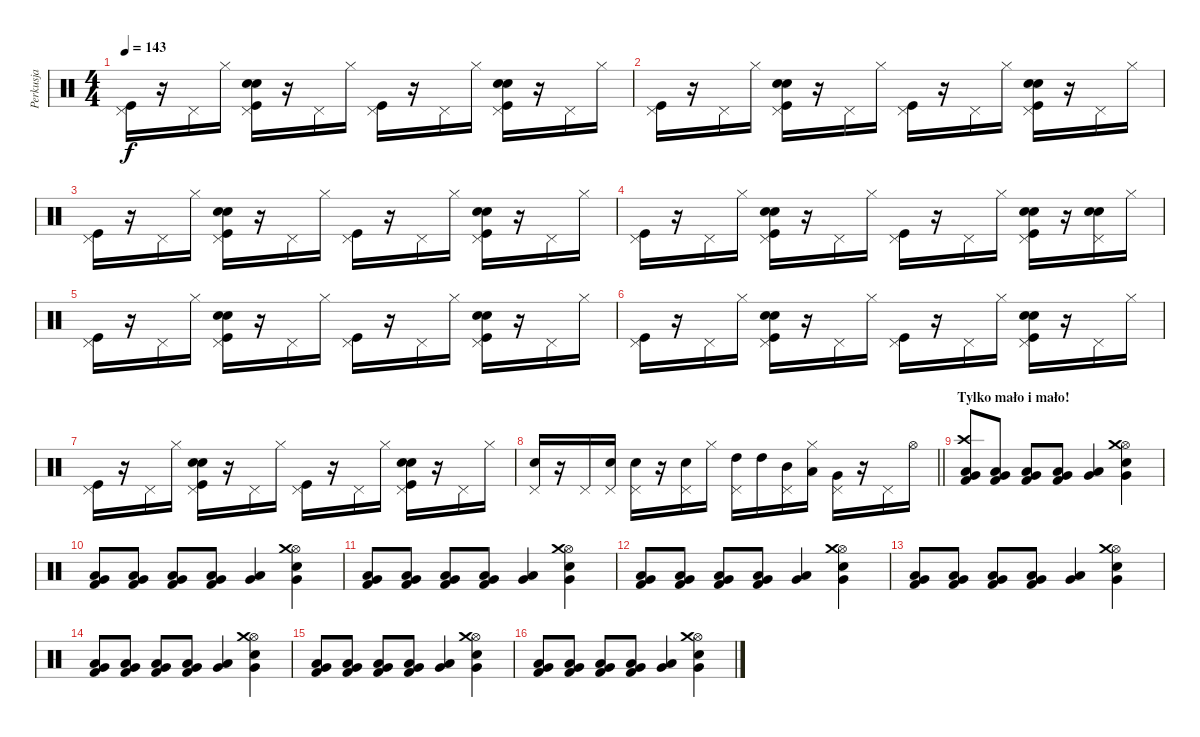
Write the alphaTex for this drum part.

\track ("Perkusja" "Perkusja") {instrument percussion}
\staff {score}
\articulation defaults
\ts (4 4)
\tempo 143
\clef neutral
\ks c
("Pedal Hi-Hat (hit)" "Kick (hit)").16{dy f} r.16 "Pedal Hi-Hat (hit)".16 "Hi-Hat (closed)".16 ("Pedal Hi-Hat (hit)" "Hand Clap (hit)" "Snare (hit) 2" "Kick (hit)").16 r.16 "Pedal Hi-Hat (hit)".16 "Hi-Hat (closed)".16 ("Pedal Hi-Hat (hit)" "Kick (hit)").16 r.16 "Pedal Hi-Hat (hit)".16 "Hi-Hat (closed)".16 ("Pedal Hi-Hat (hit)" "Hand Clap (hit)" "Snare (hit) 2" "Kick (hit)").16 r.16 "Pedal Hi-Hat (hit)".16 "Hi-Hat (closed)".16 |
("Pedal Hi-Hat (hit)" "Kick (hit)").16 r.16 "Pedal Hi-Hat (hit)".16 "Hi-Hat (closed)".16 ("Pedal Hi-Hat (hit)" "Hand Clap (hit)" "Snare (hit) 2" "Kick (hit)").16 r.16 "Pedal Hi-Hat (hit)".16 "Hi-Hat (closed)".16 ("Pedal Hi-Hat (hit)" "Kick (hit)").16 r.16 "Pedal Hi-Hat (hit)".16 "Hi-Hat (closed)".16 ("Pedal Hi-Hat (hit)" "Hand Clap (hit)" "Snare (hit) 2" "Kick (hit)").16 r.16 "Pedal Hi-Hat (hit)".16 "Hi-Hat (closed)".16 |
("Pedal Hi-Hat (hit)" "Kick (hit)").16 r.16 "Pedal Hi-Hat (hit)".16 "Hi-Hat (closed)".16 ("Pedal Hi-Hat (hit)" "Hand Clap (hit)" "Snare (hit) 2" "Kick (hit)").16 r.16 "Pedal Hi-Hat (hit)".16 "Hi-Hat (closed)".16 ("Pedal Hi-Hat (hit)" "Kick (hit)").16 r.16 "Pedal Hi-Hat (hit)".16 "Hi-Hat (closed)".16 ("Pedal Hi-Hat (hit)" "Hand Clap (hit)" "Snare (hit) 2" "Kick (hit)").16 r.16 "Pedal Hi-Hat (hit)".16 "Hi-Hat (closed)".16 |
("Pedal Hi-Hat (hit)" "Kick (hit)").16 r.16 "Pedal Hi-Hat (hit)".16 "Hi-Hat (closed)".16 ("Pedal Hi-Hat (hit)" "Hand Clap (hit)" "Snare (hit) 2" "Kick (hit)").16 r.16 "Pedal Hi-Hat (hit)".16 "Hi-Hat (closed)".16 ("Pedal Hi-Hat (hit)" "Kick (hit)").16 r.16 "Pedal Hi-Hat (hit)".16 "Hi-Hat (closed)".16 ("Pedal Hi-Hat (hit)" "Hand Clap (hit)" "Snare (hit) 2" "Kick (hit)").16 r.16 ("Pedal Hi-Hat (hit)" "Hand Clap (hit)" "Snare (hit) 2").16 "Hi-Hat (closed)".16 |
("Pedal Hi-Hat (hit)" "Kick (hit)").16 r.16 "Pedal Hi-Hat (hit)".16 "Hi-Hat (closed)".16 ("Pedal Hi-Hat (hit)" "Hand Clap (hit)" "Snare (hit) 2" "Kick (hit)").16 r.16 "Pedal Hi-Hat (hit)".16 "Hi-Hat (closed)".16 ("Pedal Hi-Hat (hit)" "Kick (hit)").16 r.16 "Pedal Hi-Hat (hit)".16 "Hi-Hat (closed)".16 ("Pedal Hi-Hat (hit)" "Hand Clap (hit)" "Snare (hit) 2" "Kick (hit)").16 r.16 "Pedal Hi-Hat (hit)".16 "Hi-Hat (closed)".16 |
("Pedal Hi-Hat (hit)" "Kick (hit)").16 r.16 "Pedal Hi-Hat (hit)".16 "Hi-Hat (closed)".16 ("Pedal Hi-Hat (hit)" "Hand Clap (hit)" "Snare (hit) 2" "Kick (hit)").16 r.16 "Pedal Hi-Hat (hit)".16 "Hi-Hat (closed)".16 ("Pedal Hi-Hat (hit)" "Kick (hit)").16 r.16 "Pedal Hi-Hat (hit)".16 "Hi-Hat (closed)".16 ("Pedal Hi-Hat (hit)" "Hand Clap (hit)" "Snare (hit) 2" "Kick (hit)").16 r.16 "Pedal Hi-Hat (hit)".16 "Hi-Hat (closed)".16 |
("Pedal Hi-Hat (hit)" "Kick (hit)").16 r.16 "Pedal Hi-Hat (hit)".16 "Hi-Hat (closed)".16 ("Pedal Hi-Hat (hit)" "Hand Clap (hit)" "Snare (hit) 2" "Kick (hit)").16 r.16 "Pedal Hi-Hat (hit)".16 "Hi-Hat (closed)".16 ("Pedal Hi-Hat (hit)" "Kick (hit)").16 r.16 "Pedal Hi-Hat (hit)".16 "Hi-Hat (closed)".16 ("Pedal Hi-Hat (hit)" "Hand Clap (hit)" "Snare (hit) 2" "Kick (hit)").16 r.16 "Pedal Hi-Hat (hit)".16 "Hi-Hat (closed)".16 |
\barLineRight lightlight
("Pedal Hi-Hat (hit)" "Snare (hit) 2").16 r.16 "Pedal Hi-Hat (hit)".16 ("Pedal Hi-Hat (hit)" "Electric Snare (hit)").16 ("Pedal Hi-Hat (hit)" "Snare (hit) 2").16 r.16 ("Pedal Hi-Hat (hit)" "Snare (hit) 2").16 "Hi-Hat (closed)".16 ("Pedal Hi-Hat (hit)" "High Tom (hit)").16 "High Tom (hit)".16 ("Pedal Hi-Hat (hit)" "Mid Tom (hit)").16 ("Hi-Hat (closed)" "Low Tom (hit)").16 ("Pedal Hi-Hat (hit)" "Very Low Tom (hit)").16 r.16 "Pedal Hi-Hat (hit)".16 "Hi-Hat (open)".16 |
\section ("" "Tylko mało i mało!")
("Crash high (hit)" "Very Low Tom (hit)" "Low Floor Tom (hit)" "Kick (hit) 2").8 ("Very Low Tom (hit)" "Low Floor Tom (hit)" "Kick (hit) 2").8 ("Very Low Tom (hit)" "Low Floor Tom (hit)" "Kick (hit) 2").8 ("Very Low Tom (hit)" "Low Floor Tom (hit)" "Kick (hit) 2").8 ("Very Low Tom (hit)" "Low Floor Tom (hit)").4 ("Hi-Hat (open)" "Crash medium (hit)" "Very Low Tom (hit)" "Electric Snare (hit)").4 |
("Very Low Tom (hit)" "Low Floor Tom (hit)" "Kick (hit) 2").8 ("Very Low Tom (hit)" "Low Floor Tom (hit)" "Kick (hit) 2").8 ("Very Low Tom (hit)" "Low Floor Tom (hit)" "Kick (hit) 2").8 ("Very Low Tom (hit)" "Low Floor Tom (hit)" "Kick (hit) 2").8 ("Very Low Tom (hit)" "Low Floor Tom (hit)").4 ("Hi-Hat (open)" "Crash medium (hit)" "Very Low Tom (hit)" "Electric Snare (hit)").4 |
("Very Low Tom (hit)" "Low Floor Tom (hit)" "Kick (hit) 2").8 ("Very Low Tom (hit)" "Low Floor Tom (hit)" "Kick (hit) 2").8 ("Very Low Tom (hit)" "Low Floor Tom (hit)" "Kick (hit) 2").8 ("Very Low Tom (hit)" "Low Floor Tom (hit)" "Kick (hit) 2").8 ("Very Low Tom (hit)" "Low Floor Tom (hit)").4 ("Hi-Hat (open)" "Crash medium (hit)" "Very Low Tom (hit)" "Electric Snare (hit)").4 |
("Very Low Tom (hit)" "Low Floor Tom (hit)" "Kick (hit) 2").8 ("Very Low Tom (hit)" "Low Floor Tom (hit)" "Kick (hit) 2").8 ("Very Low Tom (hit)" "Low Floor Tom (hit)" "Kick (hit) 2").8 ("Very Low Tom (hit)" "Low Floor Tom (hit)" "Kick (hit) 2").8 ("Very Low Tom (hit)" "Low Floor Tom (hit)").4 ("Hi-Hat (open)" "Crash medium (hit)" "Very Low Tom (hit)" "Electric Snare (hit)").4 |
("Very Low Tom (hit)" "Low Floor Tom (hit)" "Kick (hit) 2").8 ("Very Low Tom (hit)" "Low Floor Tom (hit)" "Kick (hit) 2").8 ("Very Low Tom (hit)" "Low Floor Tom (hit)" "Kick (hit) 2").8 ("Very Low Tom (hit)" "Low Floor Tom (hit)" "Kick (hit) 2").8 ("Very Low Tom (hit)" "Low Floor Tom (hit)").4 ("Hi-Hat (open)" "Crash medium (hit)" "Very Low Tom (hit)" "Electric Snare (hit)").4 |
("Very Low Tom (hit)" "Low Floor Tom (hit)" "Kick (hit) 2").8 ("Very Low Tom (hit)" "Low Floor Tom (hit)" "Kick (hit) 2").8 ("Very Low Tom (hit)" "Low Floor Tom (hit)" "Kick (hit) 2").8 ("Very Low Tom (hit)" "Low Floor Tom (hit)" "Kick (hit) 2").8 ("Very Low Tom (hit)" "Low Floor Tom (hit)").4 ("Hi-Hat (open)" "Crash medium (hit)" "Very Low Tom (hit)" "Electric Snare (hit)").4 |
("Very Low Tom (hit)" "Low Floor Tom (hit)" "Kick (hit) 2").8 ("Very Low Tom (hit)" "Low Floor Tom (hit)" "Kick (hit) 2").8 ("Very Low Tom (hit)" "Low Floor Tom (hit)" "Kick (hit) 2").8 ("Very Low Tom (hit)" "Low Floor Tom (hit)" "Kick (hit) 2").8 ("Very Low Tom (hit)" "Low Floor Tom (hit)").4 ("Hi-Hat (open)" "Crash medium (hit)" "Very Low Tom (hit)" "Electric Snare (hit)").4 |
("Very Low Tom (hit)" "Low Floor Tom (hit)" "Kick (hit) 2").8 ("Very Low Tom (hit)" "Low Floor Tom (hit)" "Kick (hit) 2").8 ("Very Low Tom (hit)" "Low Floor Tom (hit)" "Kick (hit) 2").8 ("Very Low Tom (hit)" "Low Floor Tom (hit)" "Kick (hit) 2").8 ("Very Low Tom (hit)" "Low Floor Tom (hit)").4 ("Hi-Hat (open)" "Crash medium (hit)" "Very Low Tom (hit)" "Electric Snare (hit)").4
